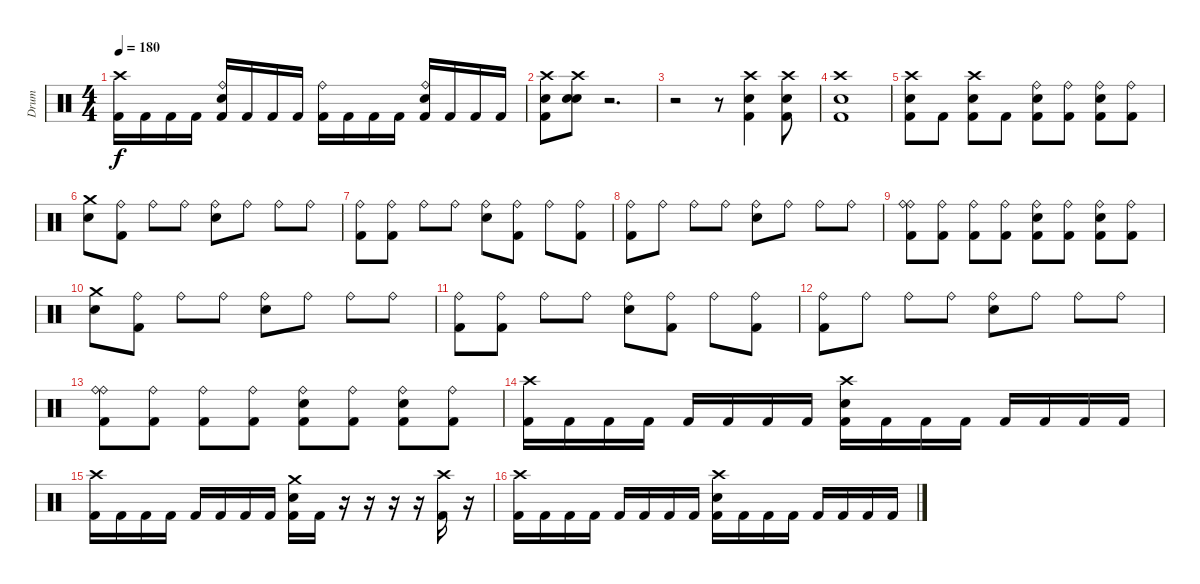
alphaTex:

\track ("Drum" "Drum") {instrument percussion}
\staff {score}
\articulation defaults
\ts (4 4)
\tempo 180
\clef neutral
\ks c
("Crash high (hit)" "Kick (hit) 2").16{dy f} "Kick (hit) 2".16 "Kick (hit) 2".16 "Kick (hit) 2".16 ("Ride (bell)" "Electric Snare (hit)" "Kick (hit) 2").16 "Kick (hit) 2".16 "Kick (hit) 2".16 "Kick (hit) 2".16 ("Ride (bell)" "Kick (hit) 2").16 "Kick (hit) 2".16 "Kick (hit) 2".16 "Kick (hit) 2".16 ("Ride (bell)" "Electric Snare (hit)" "Kick (hit) 2").16 "Kick (hit) 2".16 "Kick (hit) 2".16 "Kick (hit) 2".16 |
("Crash high (hit)" "Electric Snare (hit)" "Kick (hit) 2").8 ("Crash high (hit)" "Electric Snare (hit)" "Electric Snare (hit)").8 r.2{d} |
r.2 r.8 ("Crash high (hit)" "Electric Snare (hit)" "Kick (hit) 2").4 ("Crash high (hit)" "Electric Snare (hit)" "Kick (hit) 2").8 |
("Crash high (hit)" "Electric Snare (hit)" "Kick (hit) 2").1 |
("Crash high (hit)" "Electric Snare (hit)" "Kick (hit) 2").8 "Kick (hit) 2".8 ("Crash high (hit)" "Electric Snare (hit)" "Kick (hit) 2").8 "Kick (hit) 2".8 ("Ride (bell)" "Electric Snare (hit)" "Kick (hit) 2").8 ("Ride (bell)" "Kick (hit) 2").8 ("Ride (bell)" "Electric Snare (hit)" "Kick (hit) 2").8 ("Ride (bell)" "Kick (hit) 2").8 |
("Crash medium (hit)" "Electric Snare (hit)").8 ("Ride (bell)" "Kick (hit) 2").8 "Ride (bell)".8 "Ride (bell)".8 ("Ride (bell)" "Electric Snare (hit)").8 "Ride (bell)".8 "Ride (bell)".8 "Ride (bell)".8 |
("Ride (bell)" "Kick (hit) 2").8 ("Ride (bell)" "Kick (hit) 2").8 "Ride (bell)".8 "Ride (bell)".8 ("Ride (bell)" "Electric Snare (hit)").8 ("Ride (bell)" "Kick (hit) 2").8 "Ride (bell)".8 ("Ride (bell)" "Kick (hit) 2").8 |
("Ride (bell)" "Kick (hit) 2").8 "Ride (bell)".8 "Ride (bell)".8 "Ride (bell)".8 ("Ride (bell)" "Electric Snare (hit)").8 "Ride (bell)".8 "Ride (bell)".8 "Ride (bell)".8 |
("Ride (bell)" "Ride (bell)" "Kick (hit) 2").8 ("Ride (bell)" "Kick (hit) 2").8 ("Ride (bell)" "Kick (hit) 2").8 ("Ride (bell)" "Kick (hit) 2").8 ("Ride (bell)" "Electric Snare (hit)" "Kick (hit) 2").8 ("Ride (bell)" "Kick (hit) 2").8 ("Ride (bell)" "Electric Snare (hit)" "Kick (hit) 2").8 ("Ride (bell)" "Kick (hit) 2").8 |
("Crash medium (hit)" "Electric Snare (hit)").8 ("Ride (bell)" "Kick (hit) 2").8 "Ride (bell)".8 "Ride (bell)".8 ("Ride (bell)" "Electric Snare (hit)").8 "Ride (bell)".8 "Ride (bell)".8 "Ride (bell)".8 |
("Ride (bell)" "Kick (hit) 2").8 ("Ride (bell)" "Kick (hit) 2").8 "Ride (bell)".8 "Ride (bell)".8 ("Ride (bell)" "Electric Snare (hit)").8 ("Ride (bell)" "Kick (hit) 2").8 "Ride (bell)".8 ("Ride (bell)" "Kick (hit) 2").8 |
("Ride (bell)" "Kick (hit) 2").8 "Ride (bell)".8 "Ride (bell)".8 "Ride (bell)".8 ("Ride (bell)" "Electric Snare (hit)").8 "Ride (bell)".8 "Ride (bell)".8 "Ride (bell)".8 |
("Ride (bell)" "Ride (bell)" "Kick (hit) 2").8 ("Ride (bell)" "Kick (hit) 2").8 ("Ride (bell)" "Kick (hit) 2").8 ("Ride (bell)" "Kick (hit) 2").8 ("Ride (bell)" "Electric Snare (hit)" "Kick (hit) 2").8 ("Ride (bell)" "Kick (hit) 2").8 ("Ride (bell)" "Electric Snare (hit)" "Kick (hit) 2").8 ("Ride (bell)" "Kick (hit) 2").8 |
("Crash high (hit)" "Kick (hit) 2").16 "Kick (hit) 2".16 "Kick (hit) 2".16 "Kick (hit) 2".16 "Kick (hit) 2".16 "Kick (hit) 2".16 "Kick (hit) 2".16 "Kick (hit) 2".16 ("Crash high (hit)" "Electric Snare (hit)" "Kick (hit) 2").16 "Kick (hit) 2".16 "Kick (hit) 2".16 "Kick (hit) 2".16 "Kick (hit) 2".16 "Kick (hit) 2".16 "Kick (hit) 2".16 "Kick (hit) 2".16 |
("Crash high (hit)" "Kick (hit) 2").16 "Kick (hit) 2".16 "Kick (hit) 2".16 "Kick (hit) 2".16 "Kick (hit) 2".16 "Kick (hit) 2".16 "Kick (hit) 2".16 "Kick (hit) 2".16 ("Crash medium (hit)" "Electric Snare (hit)" "Kick (hit) 2").16 "Kick (hit) 2".16 r.16 r.16 r.16 r.16 ("Crash high (hit)" "Kick (hit) 2").16 r.16 |
("Crash high (hit)" "Kick (hit) 2").16 "Kick (hit) 2".16 "Kick (hit) 2".16 "Kick (hit) 2".16 "Kick (hit) 2".16 "Kick (hit) 2".16 "Kick (hit) 2".16 "Kick (hit) 2".16 ("Crash high (hit)" "Electric Snare (hit)" "Kick (hit) 2").16 "Kick (hit) 2".16 "Kick (hit) 2".16 "Kick (hit) 2".16 "Kick (hit) 2".16 "Kick (hit) 2".16 "Kick (hit) 2".16 "Kick (hit) 2".16
